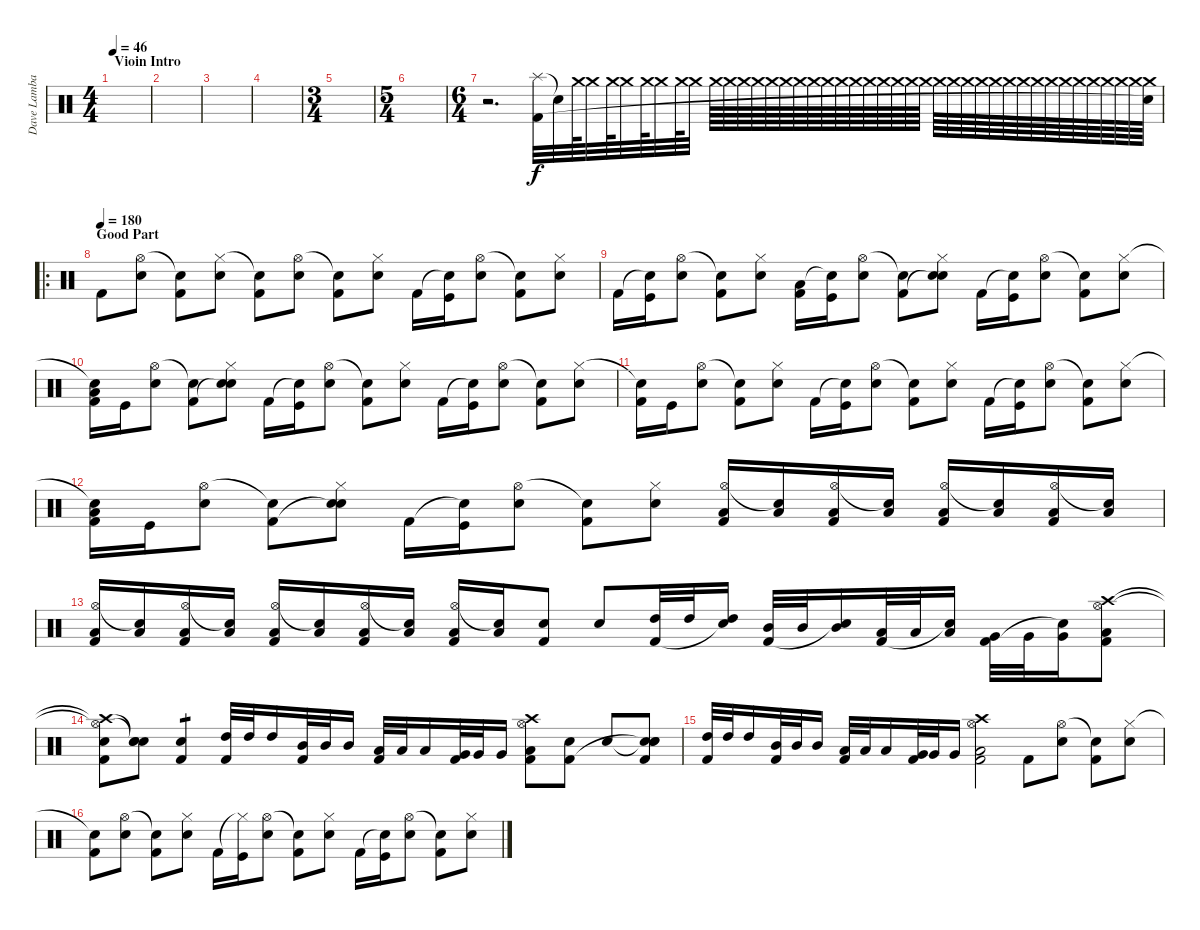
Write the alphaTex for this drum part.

\track ("Dave Lambardo" "Dave Lamba") {instrument percussion}
\staff {score}
\articulation defaults
\ts (4 4)
\section ("" "Vioin Intro")
\tempo 46
\clef neutral
\ks c
|
|
|
|
\ts (3 4)
|
\ts (5 4)
|
\ts (6 4)
r.2{d} ("Splash (hit)" "Kick (hit) 2").32 "Snare (hit)"{t}.32 "Crash medium (hit)".64{volume 5} "Crash medium (hit)".32 "Crash medium (hit)".64 "Crash medium (hit)".32 "Crash medium (hit)".64 "Crash medium (hit)".32 "Crash medium (hit)".64 "Crash medium (hit)".32 "Crash medium (hit)".64{volume 6} "Crash medium (hit)".64 "Crash medium (hit)".64 "Crash medium (hit)".64 "Crash medium (hit)".64 "Crash medium (hit)".64 "Crash medium (hit)".64 "Crash medium (hit)".64 "Crash medium (hit)".64 "Crash medium (hit)".64 "Crash medium (hit)".64 "Crash medium (hit)".64 "Crash medium (hit)".64 "Crash medium (hit)".64 "Crash medium (hit)".64 "Crash medium (hit)".64 "Crash medium (hit)".64 "Crash medium (hit)".64 "Crash medium (hit)".64 "Crash medium (hit)".64 "Crash medium (hit)".64 "Crash medium (hit)".64 "Crash medium (hit)".64 "Crash medium (hit)".64 "Crash medium (hit)".64 "Crash medium (hit)".64 "Crash medium (hit)".64 "Crash medium (hit)".64 "Crash medium (hit)".64 "Crash medium (hit)".64 "Crash medium (hit)".64 ("Crash medium (hit)" "Snare (hit)"{t}).64 |
\ro
\section ("" "Good Part")
\tempo (180)
"Kick (hit) 2".8{volume 13} ("Hi-Hat (open)" "Snare (hit) 2").8 ("Snare (hit)"{t} "Kick (hit) 2").8 ("Hi-Hat (closed)" "Snare (hit) 2").8 ("Snare (hit)"{t} "Kick (hit) 2").8 ("Hi-Hat (open)" "Snare (hit) 2").8 ("Snare (hit)"{t} "Kick (hit) 2").8 ("Hi-Hat (closed)" "Snare (hit) 2").8 "Kick (hit) 2".16 ("Snare (hit)"{t} "Kick (hit)").16 ("Hi-Hat (open)" "Snare (hit) 2").8 ("Snare (hit)"{t} "Kick (hit) 2").8 ("Hi-Hat (closed)" "Snare (hit) 2").8 |
"Kick (hit) 2".16 ("Snare (hit)"{t} "Kick (hit)").16 ("Hi-Hat (open)" "Snare (hit) 2").8 ("Snare (hit)"{t} "Kick (hit) 2").8 ("Hi-Hat (closed)" "Snare (hit) 2").8 ("Low Floor Tom (hit)" "Kick (hit) 2").16 ("Snare (hit)"{t} "Kick (hit)").16 ("Hi-Hat (open)" "Snare (hit) 2").8 ("Snare (hit)"{t} "Kick (hit) 2").8 ("Hi-Hat (closed)" "Snare (hit)"{t} "Snare (hit) 2").8 "Kick (hit) 2".16 ("Snare (hit)"{t} "Kick (hit)").16 ("Hi-Hat (open)" "Snare (hit) 2").8 ("Snare (hit)"{t} "Kick (hit) 2").8 ("Hi-Hat (closed)" "Snare (hit) 2").8 |
("Snare (hit)"{t} "Low Floor Tom (hit)" "Kick (hit) 2").16 "Kick (hit)".16 ("Hi-Hat (open)" "Snare (hit) 2").8 ("Snare (hit)"{t} "Kick (hit) 2").8 ("Hi-Hat (closed)" "Snare (hit)"{t} "Snare (hit) 2").8 "Kick (hit) 2".16 ("Snare (hit)"{t} "Kick (hit)").16 ("Hi-Hat (open)" "Snare (hit) 2").8 ("Snare (hit)"{t} "Kick (hit) 2").8 ("Hi-Hat (closed)" "Snare (hit) 2").8 "Kick (hit) 2".16 ("Snare (hit)"{t} "Kick (hit)").16 ("Hi-Hat (open)" "Snare (hit) 2").8 ("Snare (hit)"{t} "Kick (hit) 2").8 ("Hi-Hat (closed)" "Snare (hit) 2").8 |
("Snare (hit)"{t} "Kick (hit) 2").16 "Kick (hit)".16 ("Hi-Hat (open)" "Snare (hit) 2").8 ("Snare (hit)"{t} "Kick (hit) 2").8 ("Hi-Hat (closed)" "Snare (hit) 2").8 "Kick (hit) 2".16 ("Snare (hit)"{t} "Kick (hit)").16 ("Hi-Hat (open)" "Snare (hit) 2").8 ("Snare (hit)"{t} "Kick (hit) 2").8 ("Hi-Hat (closed)" "Snare (hit) 2").8 "Kick (hit) 2".16 ("Snare (hit)"{t} "Kick (hit)").16 ("Hi-Hat (open)" "Snare (hit) 2").8 ("Snare (hit)"{t} "Kick (hit) 2").8 ("Hi-Hat (closed)" "Snare (hit) 2").8 |
("Snare (hit)"{t} "Low Floor Tom (hit)" "Kick (hit) 2").16 "Kick (hit)".16 ("Hi-Hat (open)" "Snare (hit) 2").8 ("Snare (hit)"{t} "Kick (hit) 2").8 ("Hi-Hat (closed)" "Snare (hit)"{t} "Snare (hit) 2").8 "Kick (hit) 2".16 ("Snare (hit)"{t} "Kick (hit)").16 ("Hi-Hat (open)" "Snare (hit) 2").8 ("Snare (hit)"{t} "Kick (hit) 2").8 ("Hi-Hat (closed)" "Snare (hit) 2").8 ("Hi-Hat (open)" "Low Floor Tom (hit)" "Kick (hit) 2").16 ("Snare (hit)"{t} "Low Floor Tom (hit)").16 ("Hi-Hat (open)" "Low Floor Tom (hit)" "Kick (hit) 2").16 ("Snare (hit)"{t} "Low Floor Tom (hit)").16 ("Hi-Hat (open)" "Low Floor Tom (hit)" "Kick (hit) 2").16 ("Snare (hit)"{t} "Low Floor Tom (hit)").16 ("Hi-Hat (open)" "Low Floor Tom (hit)" "Kick (hit) 2").16 ("Snare (hit)"{t} "Low Floor Tom (hit)").16 |
("Hi-Hat (open)" "Low Floor Tom (hit)" "Kick (hit) 2").16 ("Snare (hit)"{t} "Low Floor Tom (hit)").16 ("Hi-Hat (open)" "Low Floor Tom (hit)" "Kick (hit) 2").16 ("Snare (hit)"{t} "Low Floor Tom (hit)").16 ("Hi-Hat (open)" "Low Floor Tom (hit)" "Kick (hit) 2").16 ("Snare (hit)"{t} "Low Floor Tom (hit)").16 ("Hi-Hat (open)" "Low Floor Tom (hit)" "Kick (hit) 2").16 ("Snare (hit)"{t} "Low Floor Tom (hit)").16 ("Hi-Hat (open)" "Low Floor Tom (hit)" "Kick (hit) 2").16 ("Snare (hit)"{t} "Low Floor Tom (hit)").16 ("Snare (hit) 2" "Kick (hit) 2").8 "Snare (hit) 2".8 ("High Tom (hit)" "Kick (hit) 2").32 "High Tom (hit)".32 ("High Tom (hit)" "Snare (hit)"{t}).16 ("Mid Tom (hit)" "Kick (hit) 2").32 "Mid Tom (hit)".32 ("Mid Tom (hit)" "Snare (hit)"{t}).16 ("Low Tom (hit)" "Kick (hit) 2").32 "Low Tom (hit)".32 ("Low Tom (hit)" "Snare (hit)"{t}).16 ("Very Low Tom (hit)" "Kick (hit) 2").32 "Very Low Tom (hit)".32 ("Very Low Tom (hit)" "Snare (hit)"{t}).16 ("Crash high (hit)" "Hi-Hat (open)" "Low Floor Tom (hit)" "Kick (hit) 2").8 |
("Crash high (hit)"{t} "Hi-Hat (open)"{t} "Snare (hit) 2" "Kick (hit) 2").8 ("Snare (hit)"{t} "Snare (hit)"{t} "Snare (hit) 2").8 ("Snare (hit) 2" "Kick (hit) 2").4{tp 1} ("High Tom (hit)" "Kick (hit) 2").32 "High Tom (hit)".32 "High Tom (hit)".16 ("Mid Tom (hit)" "Kick (hit) 2").32 "Mid Tom (hit)".32 "Mid Tom (hit)".16 ("Low Tom (hit)" "Kick (hit) 2").32 "Low Tom (hit)".32 "Low Tom (hit)".16 ("Very Low Tom (hit)" "Kick (hit) 2").32 "Very Low Tom (hit)".32 "Very Low Tom (hit)".16 ("Crash high (hit)" "Hi-Hat (open)" "Low Floor Tom (hit)" "Kick (hit) 2").8 ("Snare (hit) 2" "Kick (hit) 2").8 "Snare (hit) 2".8 ("Snare (hit)"{t} "Snare (hit)"{t} "Snare (hit) 2" "Kick (hit) 2").8 |
("High Tom (hit)" "Kick (hit) 2").32 "High Tom (hit)".32 "High Tom (hit)".16 ("Mid Tom (hit)" "Kick (hit) 2").32 "Mid Tom (hit)".32 "Mid Tom (hit)".16 ("Low Tom (hit)" "Kick (hit) 2").32 "Low Tom (hit)".32 "Low Tom (hit)".16 ("Very Low Tom (hit)" "Kick (hit) 2").32 "Very Low Tom (hit)".32 "Very Low Tom (hit)".16 ("Crash high (hit)" "Hi-Hat (open)" "Low Floor Tom (hit)" "Kick (hit) 2").2 "Kick (hit) 2".8 ("Hi-Hat (open)" "Snare (hit) 2").8 ("Snare (hit)"{t} "Kick (hit) 2").8 ("Hi-Hat (closed)" "Snare (hit) 2").8 |
("Snare (hit)"{t} "Kick (hit) 2").8 ("Hi-Hat (open)" "Snare (hit) 2").8 ("Snare (hit)"{t} "Kick (hit) 2").8 ("Hi-Hat (closed)" "Snare (hit) 2").8 "Kick (hit) 2".16 ("Hi-Hat (closed)"{t} "Kick (hit)").16 ("Hi-Hat (open)" "Snare (hit) 2").8 ("Snare (hit)"{t} "Kick (hit) 2").8 ("Hi-Hat (closed)" "Snare (hit) 2").8 "Kick (hit) 2".16 ("Snare (hit)"{t} "Kick (hit)").16 ("Hi-Hat (open)" "Snare (hit) 2").8 ("Snare (hit)"{t} "Kick (hit) 2").8 ("Hi-Hat (closed)" "Snare (hit) 2").8
